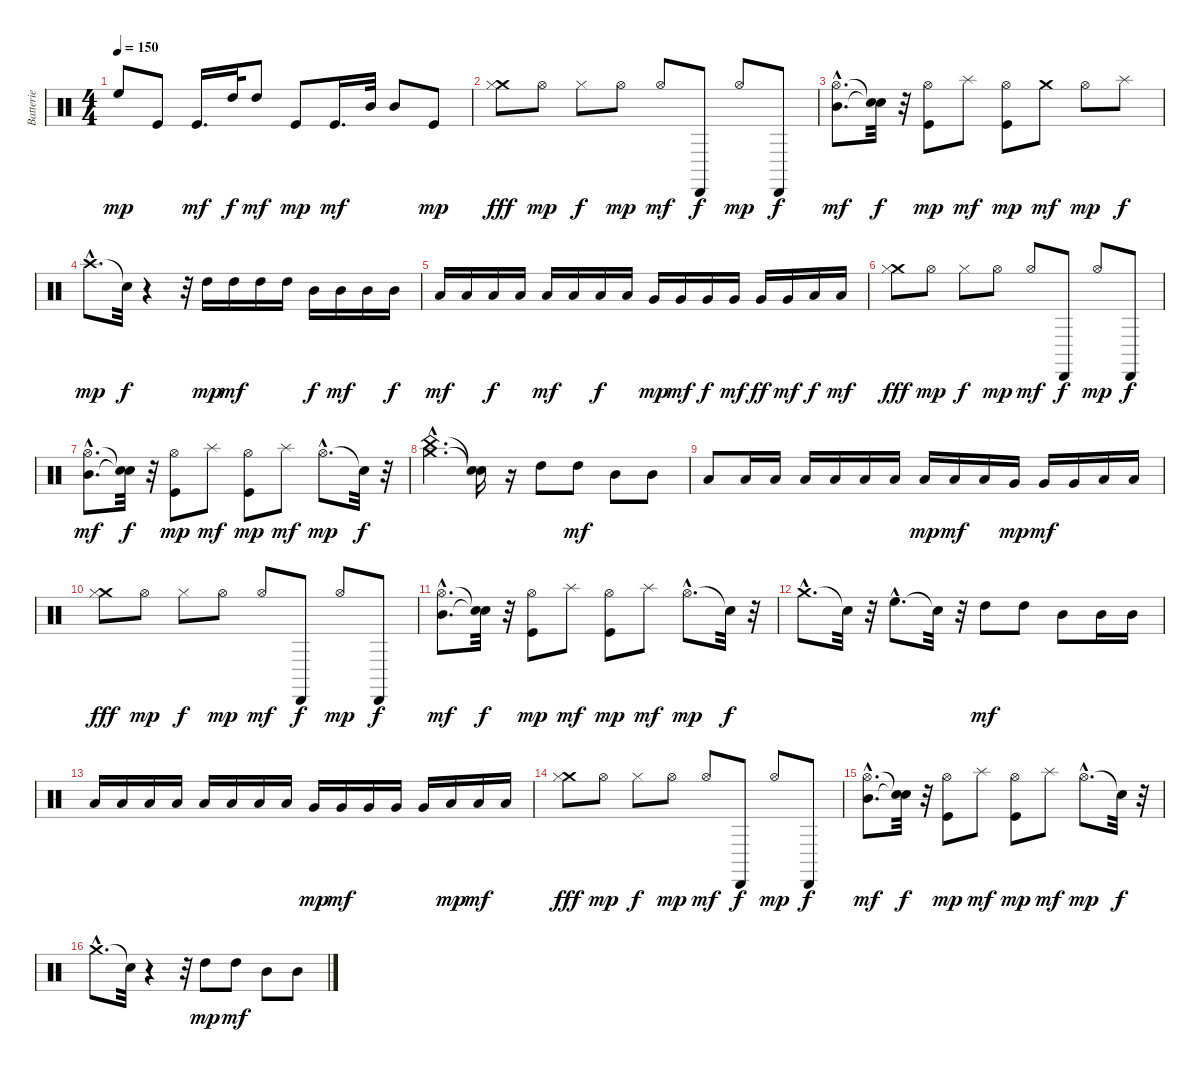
\track ("Batterie" "Batterie") {instrument percussion}
\staff {score}
\articulation defaults
\ts (4 4)
\tempo 150
\clef neutral
\ks c "High Floor Tom (hit)".8{dy mp} "Kick (hit)".8 "Kick (hit)".16{d dy mf} "High Tom (hit)".32{dy f} "High Tom (hit)".8{dy mf} "Kick (hit)".8{dy mp} "Kick (hit)".16{d dy mf} "Mid Tom (hit)".32 "Mid Tom (hit)".8 "Kick (hit)".8{dy mp}
|
("Crash medium (hit)" "Hi-Hat (closed)").8{dy fff} "Hi-Hat (open)".8{dy mp} "Hi-Hat (closed)".8{dy f} "Hi-Hat (open)".8{dy mp} "Hi-Hat (open)".8{dy mf} "Cabasa (hit)".8{dy f} "Hi-Hat (open)".8{dy mp} "Cabasa (hit)".8{dy f} |
("Hi-Hat (open)"{hac} "Mid Tom (hit)"{hac}).8{d dy mf} ("Snare (hit)"{t} "Snare (hit)"{t}).32{dy f} r.32 ("Hi-Hat (open)" "Kick (hit)").8{dy mp} "Splash (hit)".8{dy mf} ("Hi-Hat (open)" "Kick (hit)").8{dy mp} "Crash medium (hit)".8{dy mf} "Hi-Hat (open)".8{dy mp} "Splash (hit)".8{dy f} |
"Crash high (hit)"{hac}.8{d dy mp} "Snare (hit)"{t}.32{dy f} r.4 r.32 "High Tom (hit)".16{dy mp volume 6} "High Tom (hit)".16{dy mf} "High Tom (hit)".16 "High Tom (hit)".16 "Mid Tom (hit)".16{dy f} "Mid Tom (hit)".16{dy mf} "Mid Tom (hit)".16{volume 10} "Mid Tom (hit)".16{dy f} |
"Low Tom (hit)".16{dy mf volume 11} "Low Tom (hit)".16 "Low Tom (hit)".16{dy f} "Low Tom (hit)".16{volume 12} "Low Tom (hit)".16{dy mf} "Low Tom (hit)".16 "Low Tom (hit)".16{dy f} "Low Tom (hit)".16{volume 14} "Very Low Tom (hit)".16{dy mp} "Very Low Tom (hit)".16{dy mf} "Very Low Tom (hit)".16{dy f} "Very Low Tom (hit)".16{dy mf} "Very Low Tom (hit)".16{dy ff} "Very Low Tom (hit)".16{dy mf volume 16} "Low Floor Tom (hit)".16{dy f} "Low Floor Tom (hit)".16{dy mf} |
("Crash medium (hit)" "Hi-Hat (closed)").8{dy fff} "Hi-Hat (open)".8{dy mp} "Hi-Hat (closed)".8{dy f} "Hi-Hat (open)".8{dy mp} "Hi-Hat (open)".8{dy mf} "Cabasa (hit)".8{dy f} "Hi-Hat (open)".8{dy mp} "Cabasa (hit)".8{dy f} |
("Hi-Hat (open)"{hac} "Mid Tom (hit)"{hac}).8{d dy mf} ("Snare (hit)"{t} "Snare (hit)"{t}).32{dy f} r.32 ("Hi-Hat (open)" "Kick (hit)").8{dy mp} "Splash (hit)".8{dy mf} ("Hi-Hat (open)" "Kick (hit)").8{dy mp} "Splash (hit)".8{dy mf} "Hi-Hat (open)"{hac}.8{d dy mp} "Snare (hit)"{t}.32{dy f} r.32 |
("China (hit)"{hac} "Crash medium (hit)"{hac}).4{d} ("Snare (hit)"{t} "Snare (hit)"{t}).16 r.16 "High Tom (hit)".8{volume 10} "High Tom (hit)".8{dy mf} "Mid Tom (hit)".8 "Mid Tom (hit)".8 |
"Low Tom (hit)".8{volume 12} "Low Tom (hit)".16{volume 12} "Low Tom (hit)".16 "Low Tom (hit)".16 "Low Tom (hit)".16 "Low Tom (hit)".16 "Low Tom (hit)".16{volume 14} "Low Tom (hit)".16{dy mp} "Low Tom (hit)".16{dy mf} "Low Tom (hit)".16 "Very Low Tom (hit)".16{dy mp} "Very Low Tom (hit)".16{dy mf} "Very Low Tom (hit)".16{volume 16} "Low Floor Tom (hit)".16 "Low Floor Tom (hit)".16 |
("Crash medium (hit)" "Hi-Hat (closed)").8{dy fff} "Hi-Hat (open)".8{dy mp} "Hi-Hat (closed)".8{dy f} "Hi-Hat (open)".8{dy mp} "Hi-Hat (open)".8{dy mf} "Cabasa (hit)".8{dy f} "Hi-Hat (open)".8{dy mp} "Cabasa (hit)".8{dy f} |
("Hi-Hat (open)"{hac} "Mid Tom (hit)"{hac}).8{d dy mf} ("Snare (hit)"{t} "Snare (hit)"{t}).32{dy f} r.32 ("Hi-Hat (open)" "Kick (hit)").8{dy mp} "Splash (hit)".8{dy mf} ("Hi-Hat (open)" "Kick (hit)").8{dy mp} "Splash (hit)".8{dy mf} "Hi-Hat (open)"{hac}.8{d dy mp} "Snare (hit)"{t}.32{dy f} r.32 |
"Crash medium (hit)"{hac}.8{d volume 10} "Snare (hit)"{t}.32 r.32 "High Floor Tom (hit)"{hac}.8{d} "Snare (hit)"{t}.32 r.32 "High Tom (hit)".8{dy mf} "High Tom (hit)".8 "Mid Tom (hit)".8 "Mid Tom (hit)".16 "Mid Tom (hit)".16 |
"Low Tom (hit)".16 "Low Tom (hit)".16 "Low Tom (hit)".16{volume 12} "Low Tom (hit)".16{volume 12} "Low Tom (hit)".16 "Low Tom (hit)".16 "Low Tom (hit)".16 "Low Tom (hit)".16 "Very Low Tom (hit)".16{dy mp} "Very Low Tom (hit)".16{dy mf volume 14} "Very Low Tom (hit)".16 "Very Low Tom (hit)".16 "Very Low Tom (hit)".16 "Low Floor Tom (hit)".16{dy mp} "Low Floor Tom (hit)".16{dy mf} "Low Floor Tom (hit)".16{volume 16} |
("Crash medium (hit)" "Hi-Hat (closed)").8{dy fff} "Hi-Hat (open)".8{dy mp} "Hi-Hat (closed)".8{dy f} "Hi-Hat (open)".8{dy mp} "Hi-Hat (open)".8{dy mf} "Cabasa (hit)".8{dy f} "Hi-Hat (open)".8{dy mp} "Cabasa (hit)".8{dy f} |
("Hi-Hat (open)"{hac} "Mid Tom (hit)"{hac}).8{d dy mf} ("Snare (hit)"{t} "Snare (hit)"{t}).32{dy f} r.32 ("Hi-Hat (open)" "Kick (hit)").8{dy mp} "Splash (hit)".8{dy mf} ("Hi-Hat (open)" "Kick (hit)").8{dy mp} "Splash (hit)".8{dy mf} "Hi-Hat (open)"{hac}.8{d dy mp} "Snare (hit)"{t}.32{dy f} r.32 |
"Crash medium (hit)"{hac}.8{d} "Snare (hit)"{t}.32 r.4 r.32 "High Tom (hit)".8{dy mp volume 10} "High Tom (hit)".8{dy mf} "Mid Tom (hit)".8 "Mid Tom (hit)".8
